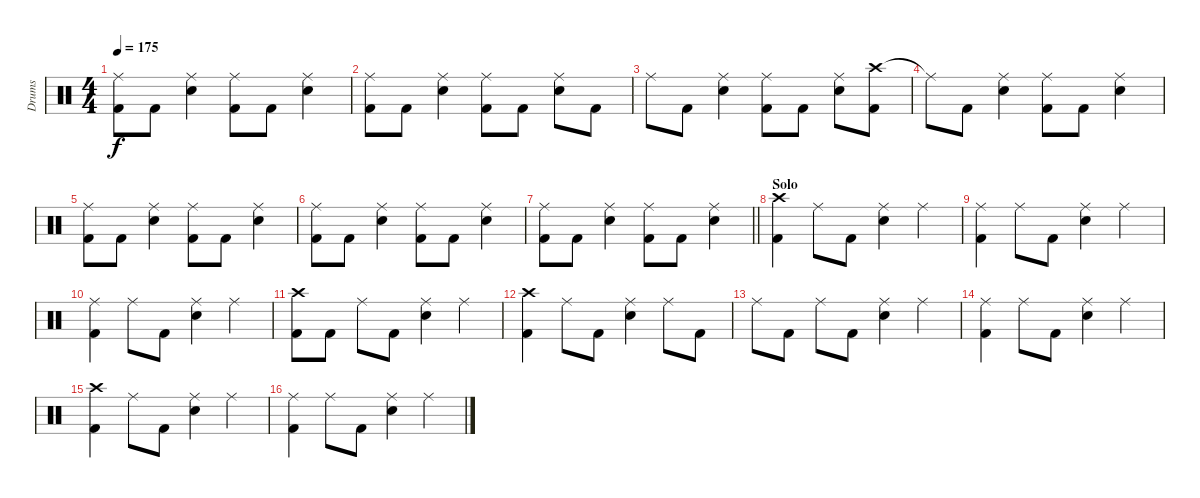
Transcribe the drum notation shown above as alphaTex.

\track ("Drums" "Drums") {instrument percussion}
\staff {score}
\articulation defaults
\ts (4 4)
\tempo 175
\clef neutral
\ks c
("Ride (middle)" "Kick (hit) 2").8{dy f} "Kick (hit) 2".8 ("Ride (middle)" "Snare (hit) 2").4 ("Ride (middle)" "Kick (hit) 2").8 "Kick (hit) 2".8 ("Ride (middle)" "Snare (hit) 2").4 |
("Ride (middle)" "Kick (hit) 2").8 "Kick (hit) 2".8 ("Ride (middle)" "Snare (hit) 2").4 ("Ride (middle)" "Kick (hit) 2").8 "Kick (hit) 2".8 ("Ride (middle)" "Snare (hit) 2").8 "Kick (hit) 2".8 |
"Ride (middle)".8 "Kick (hit) 2".8 ("Ride (middle)" "Snare (hit) 2").4 ("Ride (middle)" "Kick (hit) 2").8 "Kick (hit) 2".8 ("Ride (middle)" "Snare (hit) 2").8 ("Crash high (hit)" "Kick (hit) 2").8 |
"Ride (middle)"{t}.8 "Kick (hit) 2".8 ("Ride (middle)" "Snare (hit) 2").4 ("Ride (middle)" "Kick (hit) 2").8 "Kick (hit) 2".8 ("Ride (middle)" "Snare (hit) 2").4 |
("Ride (middle)" "Kick (hit) 2").8 "Kick (hit) 2".8 ("Ride (middle)" "Snare (hit) 2").4 ("Ride (middle)" "Kick (hit) 2").8 "Kick (hit) 2".8 ("Ride (middle)" "Snare (hit) 2").4 |
("Ride (middle)" "Kick (hit) 2").8 "Kick (hit) 2".8 ("Ride (middle)" "Snare (hit) 2").4 ("Ride (middle)" "Kick (hit) 2").8 "Kick (hit) 2".8 ("Ride (middle)" "Snare (hit) 2").4 |
\barLineRight lightlight
("Ride (middle)" "Kick (hit) 2").8 "Kick (hit) 2".8 ("Ride (middle)" "Snare (hit) 2").4 ("Ride (middle)" "Kick (hit) 2").8 "Kick (hit) 2".8 ("Ride (middle)" "Snare (hit) 2").4 |
\section ("" "Solo")
("Crash high (hit)" "Kick (hit) 2").4 "Ride (middle)".8 "Kick (hit) 2".8 ("Ride (middle)" "Snare (hit) 2").4 "Ride (middle)".4 |
("Ride (middle)" "Kick (hit) 2").4 "Ride (middle)".8 "Kick (hit) 2".8 ("Ride (middle)" "Snare (hit) 2").4 "Ride (middle)".4 |
("Ride (middle)" "Kick (hit) 2").4 "Ride (middle)".8 "Kick (hit) 2".8 ("Ride (middle)" "Snare (hit) 2").4 "Ride (middle)".4 |
("Crash high (hit)" "Kick (hit) 2").8 "Kick (hit) 2".8 "Ride (middle)".8 "Kick (hit) 2".8 ("Ride (middle)" "Snare (hit) 2").4 "Ride (middle)".4 |
("Crash high (hit)" "Kick (hit) 2").4 "Ride (middle)".8 "Kick (hit) 2".8 ("Ride (middle)" "Snare (hit) 2").4 "Ride (middle)".8 "Kick (hit) 2".8 |
"Ride (middle)".8 "Kick (hit) 2".8 "Ride (middle)".8 "Kick (hit) 2".8 ("Ride (middle)" "Snare (hit) 2").4 "Ride (middle)".4 |
("Ride (middle)" "Kick (hit) 2").4 "Ride (middle)".8 "Kick (hit) 2".8 ("Ride (middle)" "Snare (hit) 2").4 "Ride (middle)".4 |
("Crash high (hit)" "Kick (hit) 2").4 "Ride (middle)".8 "Kick (hit) 2".8 ("Ride (middle)" "Snare (hit) 2").4 "Ride (middle)".4 |
("Ride (middle)" "Kick (hit) 2").4 "Ride (middle)".8 "Kick (hit) 2".8 ("Ride (middle)" "Snare (hit) 2").4 "Ride (middle)".4
